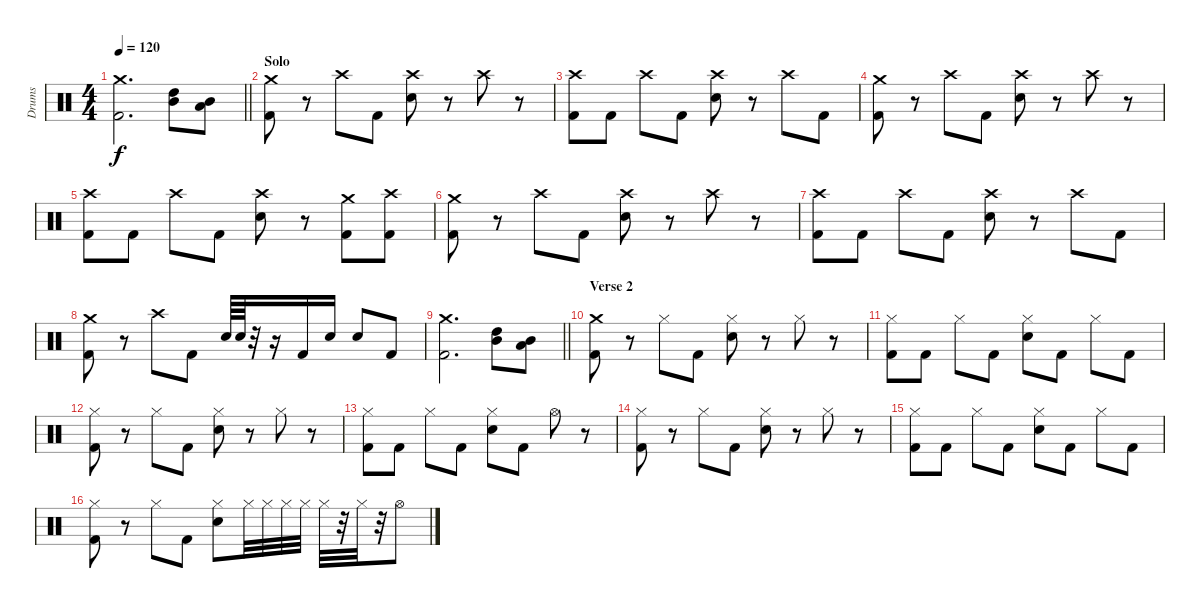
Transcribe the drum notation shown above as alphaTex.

\track ("Drums" "Drums") {instrument percussion}
\staff {score}
\articulation defaults
\ts (4 4)
\tempo 120
\clef neutral
\barLineRight lightlight
\ks c
("Crash medium (hit)"{t} "Kick (hit) 2"{t}).2{d dy f} ("High Tom (hit)" "Mid Tom (hit)").8 ("Mid Tom (hit)" "Low Tom (hit)").8 |
\section ("" "Solo")
("Crash medium (hit)" "Kick (hit) 2").8 r.8 "Crash high (hit)".8 "Kick (hit) 2".8 ("Crash high (hit)" "Electric Snare (hit)").8 r.8 "Crash high (hit)".8 r.8 |
("Crash high (hit)" "Kick (hit) 2").8 "Kick (hit) 2".8 "Crash high (hit)".8 "Kick (hit) 2".8 ("Crash high (hit)" "Electric Snare (hit)").8 r.8 "Crash high (hit)".8 "Kick (hit) 2".8 |
("Crash medium (hit)" "Kick (hit) 2").8 r.8 "Crash high (hit)".8 "Kick (hit) 2".8 ("Crash high (hit)" "Electric Snare (hit)").8 r.8 "Crash high (hit)".8 r.8 |
("Crash high (hit)" "Kick (hit) 2").8 "Kick (hit) 2".8 "Crash high (hit)".8 "Kick (hit) 2".8 ("Crash high (hit)" "Electric Snare (hit)").8 r.8 ("Crash medium (hit)" "Kick (hit) 2").8 ("Crash high (hit)" "Kick (hit) 2").8 |
("Crash medium (hit)" "Kick (hit) 2").8 r.8 "Crash high (hit)".8 "Kick (hit) 2".8 ("Crash high (hit)" "Electric Snare (hit)").8 r.8 "Crash high (hit)".8 r.8 |
("Crash high (hit)" "Kick (hit) 2").8 "Kick (hit) 2".8 "Crash high (hit)".8 "Kick (hit) 2".8 ("Crash high (hit)" "Electric Snare (hit)").8 r.8 "Crash high (hit)".8 "Kick (hit) 2".8 |
("Crash medium (hit)" "Kick (hit) 2").8 r.8 "Crash high (hit)".8 "Kick (hit) 2".8 "Electric Snare (hit)".64 "Electric Snare (hit)".64 r.32 r.16 "Kick (hit) 2".16 "Electric Snare (hit)".16 "Electric Snare (hit)".8 "Kick (hit) 2".8 |
\barLineRight lightlight
("Crash medium (hit)" "Kick (hit) 2").2{d} ("High Tom (hit)" "Mid Tom (hit)").8 ("Mid Tom (hit)" "Low Tom (hit)").8 |
\section ("" "Verse 2")
("Crash medium (hit)" "Kick (hit) 2").8 r.8 "Hi-Hat (closed)".8 "Kick (hit) 2".8 ("Hi-Hat (closed)" "Electric Snare (hit)").8 r.8 "Hi-Hat (closed)".8 r.8 |
("Hi-Hat (closed)" "Kick (hit) 2").8 "Kick (hit) 2".8 "Hi-Hat (closed)".8 "Kick (hit) 2".8 ("Hi-Hat (closed)" "Electric Snare (hit)").8 "Kick (hit) 2".8 "Hi-Hat (closed)".8 "Kick (hit) 2".8 |
("Hi-Hat (closed)" "Kick (hit) 2").8 r.8 "Hi-Hat (closed)".8 "Kick (hit) 2".8 ("Hi-Hat (closed)" "Electric Snare (hit)").8 r.8 "Hi-Hat (closed)".8 r.8 |
("Hi-Hat (closed)" "Kick (hit) 2").8 "Kick (hit) 2".8 "Hi-Hat (closed)".8 "Kick (hit) 2".8 ("Hi-Hat (closed)" "Electric Snare (hit)").8 "Kick (hit) 2".8 "Hi-Hat (open)".8 r.8 |
("Hi-Hat (closed)" "Kick (hit) 2").8 r.8 "Hi-Hat (closed)".8 "Kick (hit) 2".8 ("Hi-Hat (closed)" "Electric Snare (hit)").8 r.8 "Hi-Hat (closed)".8 r.8 |
("Hi-Hat (closed)" "Kick (hit) 2").8 "Kick (hit) 2".8 "Hi-Hat (closed)".8 "Kick (hit) 2".8 ("Hi-Hat (closed)" "Electric Snare (hit)").8 "Kick (hit) 2".8 "Hi-Hat (closed)".8 "Kick (hit) 2".8 |
("Hi-Hat (closed)" "Kick (hit) 2").8 r.8 "Hi-Hat (closed)".8 "Kick (hit) 2".8 ("Hi-Hat (closed)" "Electric Snare (hit)").8 "Hi-Hat (closed)".32 "Hi-Hat (closed)".32 "Hi-Hat (closed)".32 "Hi-Hat (closed)".32 "Hi-Hat (closed)".32 r.32 "Hi-Hat (closed)".32 r.32 "Hi-Hat (open)".8
